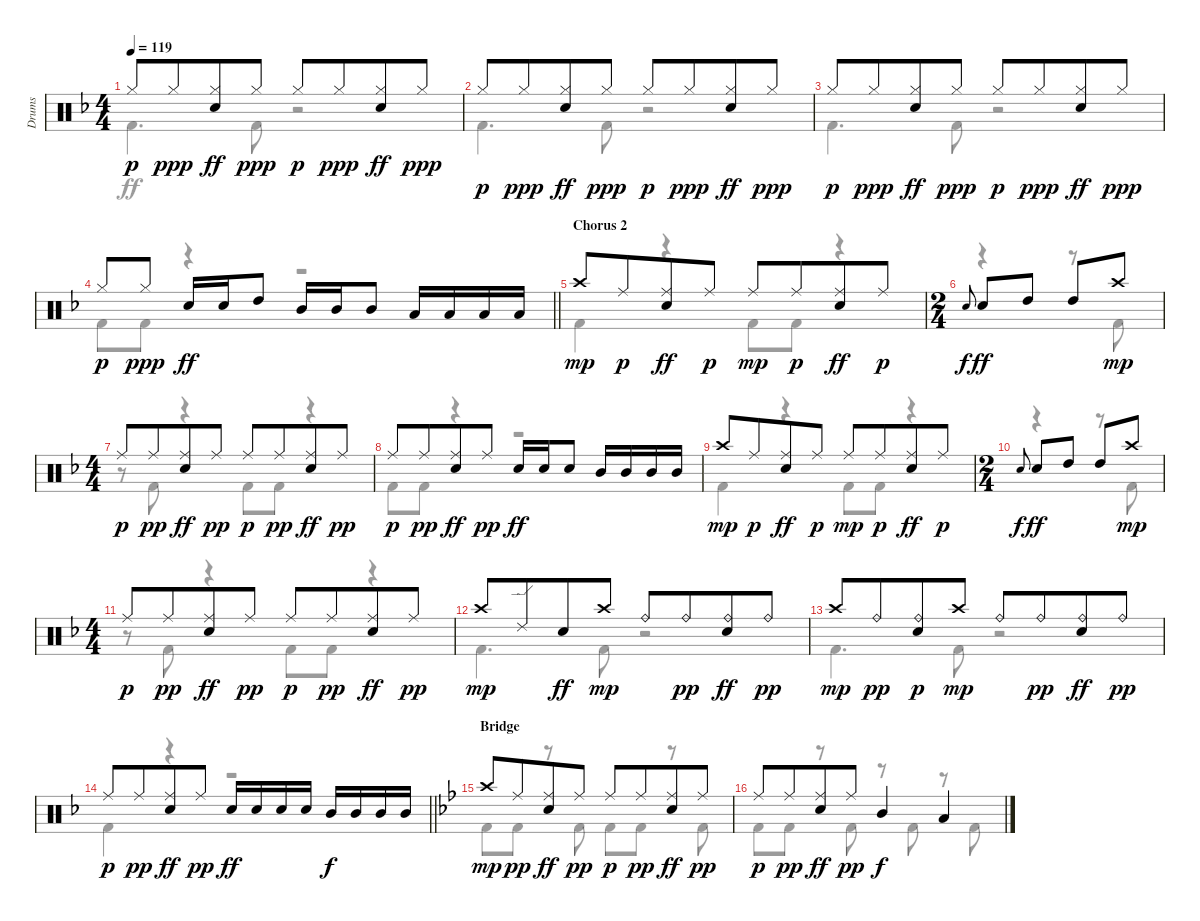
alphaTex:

\track ("Drums" "Drums") {instrument percussion}
\staff {score}
\articulation defaults
\voice
\ts (4 4)
\tempo 119
\clef neutral
\ks f "Hi-Hat (closed)".8{dy p} "Hi-Hat (closed)".8{dy ppp beam merge}
("Hi-Hat (closed)" "Electric Snare (hit)").8{dy ff} "Hi-Hat (closed)".8{dy ppp} "Hi-Hat (closed)".8{dy p} "Hi-Hat (closed)".8{dy ppp beam merge} ("Hi-Hat (closed)" "Electric Snare (hit)").8{dy ff} "Hi-Hat (closed)".8{dy ppp} |
"Hi-Hat (closed)".8{dy p} "Hi-Hat (closed)".8{dy ppp beam merge} ("Hi-Hat (closed)" "Electric Snare (hit)").8{dy ff} "Hi-Hat (closed)".8{dy ppp} "Hi-Hat (closed)".8{dy p} "Hi-Hat (closed)".8{dy ppp beam merge} ("Hi-Hat (closed)" "Electric Snare (hit)").8{dy ff} "Hi-Hat (closed)".8{dy ppp} |
"Hi-Hat (closed)".8{dy p} "Hi-Hat (closed)".8{dy ppp beam merge} ("Hi-Hat (closed)" "Electric Snare (hit)").8{dy ff} "Hi-Hat (closed)".8{dy ppp} "Hi-Hat (closed)".8{dy p} "Hi-Hat (closed)".8{dy ppp beam merge} ("Hi-Hat (closed)" "Electric Snare (hit)").8{dy ff} "Hi-Hat (closed)".8{dy ppp} |
\barLineRight lightlight "Hi-Hat (closed)".8{dy p} "Hi-Hat (closed)".8{dy ppp} "Electric Snare (hit)".16{dy ff} "Electric Snare (hit)".16 "High Tom (hit)".8 "Mid Tom (hit)".16 "Mid Tom (hit)".16 "Mid Tom (hit)".8 "Low Tom (hit)".16 "Low Tom (hit)".16 "Low Tom (hit)".16 "Low Tom (hit)".16
|
\section ("" "Chorus 2")
"Crash high (hit)".8{dy mp} "Ride (middle)".8{dy p beam merge} ("Ride (middle)" "Electric Snare (hit)").8{dy ff} "Ride (middle)".8{dy p} "Ride (middle)".8{dy mp} "Ride (middle)".8{dy p beam merge} ("Ride (middle)" "Electric Snare (hit)").8{dy ff} "Ride (middle)".8{dy p} |
\ts (2 4)
"Electric Snare (hit)".8{gr onbeat dy f} "Electric Snare (hit)".8{dy ff} "High Tom (hit)".8{beam split} "High Tom (hit)".8 "Crash high (hit)".8{dy mp} |
\ts (4 4)
"Ride (middle)".8{dy p} "Ride (middle)".8{dy pp beam merge} ("Ride (middle)" "Electric Snare (hit)").8{dy ff} "Ride (middle)".8{dy pp} "Ride (middle)".8{dy p} "Ride (middle)".8{dy pp beam merge} ("Ride (middle)" "Electric Snare (hit)").8{dy ff} "Ride (middle)".8{dy pp} |
"Ride (middle)".8{dy p} "Ride (middle)".8{dy pp beam merge} ("Ride (middle)" "Electric Snare (hit)").8{dy ff} "Ride (middle)".8{dy pp} "Electric Snare (hit)".16{dy ff} "Electric Snare (hit)".16 "Electric Snare (hit)".8 "Mid Tom (hit)".16 "Mid Tom (hit)".16 "Mid Tom (hit)".16 "Mid Tom (hit)".16 |
"Crash high (hit)".8{dy mp} "Ride (middle)".8{dy p beam merge} ("Ride (middle)" "Electric Snare (hit)").8{dy ff} "Ride (middle)".8{dy p} "Ride (middle)".8{dy mp} "Ride (middle)".8{dy p beam merge} ("Ride (middle)" "Electric Snare (hit)").8{dy ff} "Ride (middle)".8{dy p} |
\ts (2 4)
"Electric Snare (hit)".8{gr onbeat dy f} "Electric Snare (hit)".8{dy ff} "High Tom (hit)".8 "High Tom (hit)".8 "Crash high (hit)".8{dy mp} |
\ts (4 4)
"Ride (middle)".8{dy p} "Ride (middle)".8{dy pp beam merge} ("Ride (middle)" "Electric Snare (hit)").8{dy ff} "Ride (middle)".8{dy pp} "Ride (middle)".8{dy p} "Ride (middle)".8{dy pp beam merge} ("Ride (middle)" "Electric Snare (hit)").8{dy ff} "Ride (middle)".8{dy pp} |
"Crash high (hit)".8{dy mp} "Ride (edge) 2".8{beam merge} "Electric Snare (hit)".8{dy ff} "Crash high (hit)".8{dy mp} "Ride (bell)".8 "Ride (bell)".8{dy pp beam merge} ("Ride (bell)" "Electric Snare (hit)").8{dy ff} "Ride (bell)".8{dy pp} |
"Crash high (hit)".8{dy mp} "Ride (bell)".8{dy pp beam merge} ("Electric Snare (hit)" "Ride (bell)").8{dy p} "Crash high (hit)".8{dy mp} "Ride (bell)".8 "Ride (bell)".8{dy pp beam merge} ("Ride (bell)" "Electric Snare (hit)").8{dy ff} "Ride (bell)".8{dy pp} |
\barLineRight lightlight "Ride (middle)".8{dy p} "Ride (middle)".8{dy pp beam merge}
("Ride (middle)" "Electric Snare (hit)").8{dy ff} "Ride (middle)".8{dy pp} "Electric Snare (hit)".16{dy ff} "Electric Snare (hit)".16 "Electric Snare (hit)".16 "Electric Snare (hit)".16 "Mid Tom (hit)".16{dy f} "Mid Tom (hit)".16 "Mid Tom (hit)".16 "Mid Tom (hit)".16 |
\section ("" "Bridge")
\ks bb "Crash high (hit)".8{dy mp} "Ride (middle)".8{dy pp beam merge}
("Ride (middle)" "Electric Snare (hit)").8{dy ff} "Ride (middle)".8{dy pp} "Ride (middle)".8{dy p} "Ride (middle)".8{dy pp beam merge} ("Ride (middle)" "Electric Snare (hit)").8{dy ff} "Ride (middle)".8{dy pp} |
"Ride (middle)".8{dy p} "Ride (middle)".8{dy pp beam merge} ("Ride (middle)" "Electric Snare (hit)").8{dy ff} "Ride (middle)".8{dy pp} "Mid Tom (hit)".4{dy f} "Low Tom (hit)".4
\voice
\clef neutral
\ottava regular
\simile none
\ks f "Kick (hit) 2".4{d dy ff} "Kick (hit) 2".8
r.2 |
"Kick (hit) 2".4{d} "Kick (hit) 2".8 r.2 |
"Kick (hit) 2".4{d} "Kick (hit) 2".8 r.2 |
\barLineRight lightlight "Kick (hit) 2".8 "Kick (hit) 2".8
r.4 r.2 |
"Kick (hit) 2".4 r.4 "Kick (hit) 2".8 "Kick (hit) 2".8 r.4 |
r.4 r.8 "Kick (hit) 2".8 |
r.8 "Kick (hit) 2".8 r.4 "Kick (hit) 2".8 "Kick (hit) 2".8 r.4 |
"Kick (hit) 2".8 "Kick (hit) 2".8 r.4 r.2 |
"Kick (hit) 2".4 r.4 "Kick (hit) 2".8 "Kick (hit) 2".8 r.4 |
r.4 r.8 "Kick (hit) 2".8 |
r.8 "Kick (hit) 2".8 r.4 "Kick (hit) 2".8 "Kick (hit) 2".8 r.4 |
"Kick (hit) 2".4{d} "Kick (hit) 2".8 r.2 |
"Kick (hit) 2".4{d} "Kick (hit) 2".8 r.2 |
\barLineRight lightlight "Kick (hit) 2".4
r.4 r.2 |
\ks bb "Kick (hit) 2".8 "Kick (hit) 2".8
r.8 "Kick (hit) 2".8 "Kick (hit) 2".8 "Kick (hit) 2".8 r.8 "Kick (hit) 2".8 |
"Kick (hit) 2".8 "Kick (hit) 2".8 r.8 "Kick (hit) 2".8 r.8 "Kick (hit) 2".8 r.8 "Kick (hit) 2".8
